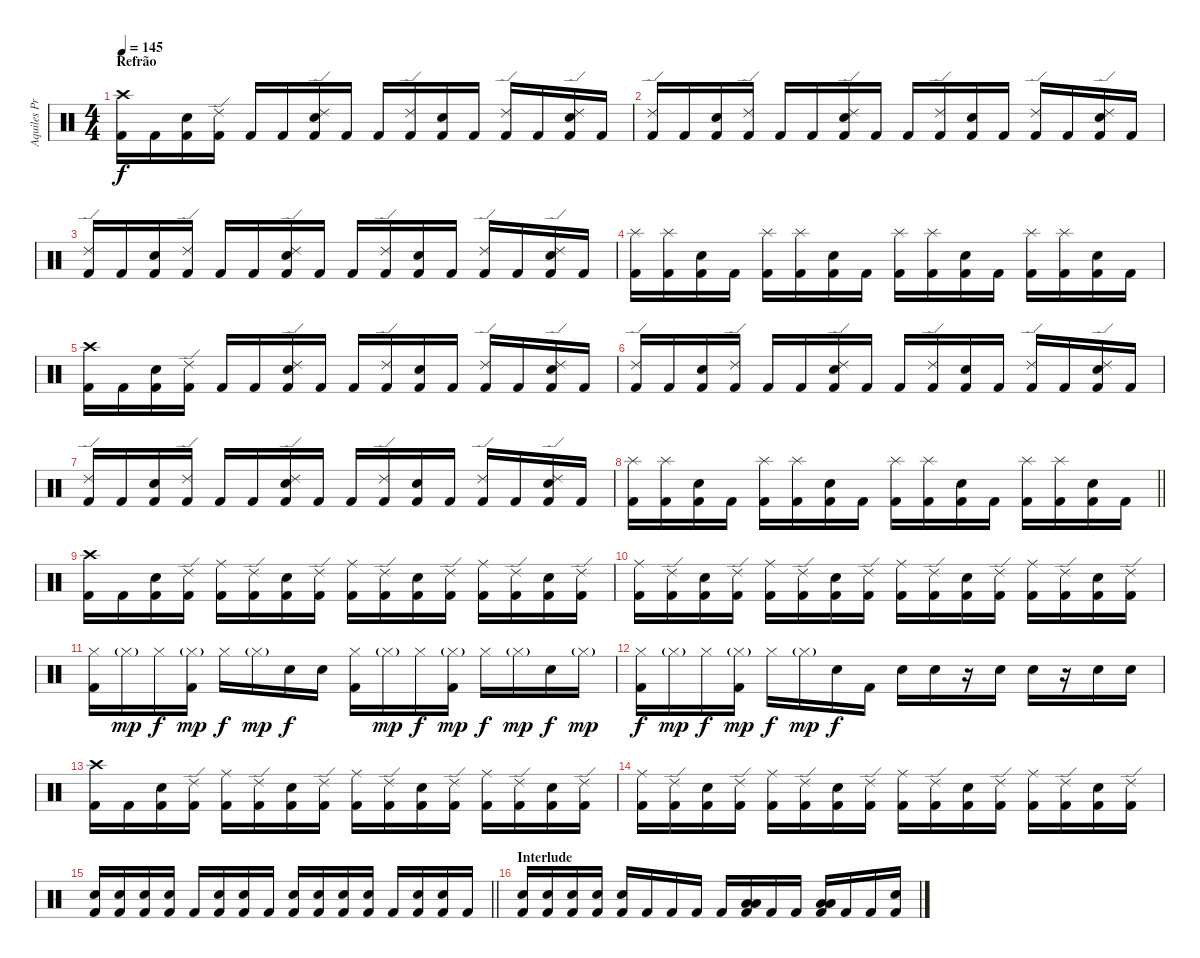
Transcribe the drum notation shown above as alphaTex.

\track ("Aquiles Priester" "Aquiles Pr") {instrument percussion}
\staff {score}
\articulation defaults
\ts (4 4)
\section ("" "Refrão")
\tempo 145
\clef neutral
\ks c
("Crash high (hit)" "Kick (hit) 2").16{dy f} "Kick (hit) 2".16 ("Electric Snare (hit)" "Kick (hit) 2").16 ("Ride (edge) 2" "Kick (hit) 2").16 "Kick (hit) 2".16 "Kick (hit) 2".16 ("Ride (edge) 2" "Electric Snare (hit)" "Kick (hit) 2").16 "Kick (hit) 2".16 "Kick (hit) 2".16 ("Ride (edge) 2" "Kick (hit) 2").16 ("Electric Snare (hit)" "Kick (hit) 2").16 "Kick (hit) 2".16 ("Ride (edge) 2" "Kick (hit) 2").16 "Kick (hit) 2".16 ("Ride (edge) 2" "Electric Snare (hit)" "Kick (hit) 2").16 "Kick (hit) 2".16 |
("Ride (edge) 2" "Kick (hit) 2").16 "Kick (hit) 2".16 ("Electric Snare (hit)" "Kick (hit) 2").16 ("Ride (edge) 2" "Kick (hit) 2").16 "Kick (hit) 2".16 "Kick (hit) 2".16 ("Ride (edge) 2" "Electric Snare (hit)" "Kick (hit) 2").16 "Kick (hit) 2".16 "Kick (hit) 2".16 ("Ride (edge) 2" "Kick (hit) 2").16 ("Electric Snare (hit)" "Kick (hit) 2").16 "Kick (hit) 2".16 ("Ride (edge) 2" "Kick (hit) 2").16 "Kick (hit) 2".16 ("Ride (edge) 2" "Electric Snare (hit)" "Kick (hit) 2").16 "Kick (hit) 2".16 |
("Ride (edge) 2" "Kick (hit) 2").16 "Kick (hit) 2".16 ("Electric Snare (hit)" "Kick (hit) 2").16 ("Ride (edge) 2" "Kick (hit) 2").16 "Kick (hit) 2".16 "Kick (hit) 2".16 ("Ride (edge) 2" "Electric Snare (hit)" "Kick (hit) 2").16 "Kick (hit) 2".16 "Kick (hit) 2".16 ("Ride (edge) 2" "Kick (hit) 2").16 ("Electric Snare (hit)" "Kick (hit) 2").16 "Kick (hit) 2".16 ("Ride (edge) 2" "Kick (hit) 2").16 "Kick (hit) 2".16 ("Ride (edge) 2" "Electric Snare (hit)" "Kick (hit) 2").16 "Kick (hit) 2".16 |
("Splash (hit)" "Kick (hit) 2").16 ("Splash (hit)" "Kick (hit) 2").16 ("Electric Snare (hit)" "Kick (hit) 2").16 "Kick (hit) 2".16 ("Splash (hit)" "Kick (hit) 2").16 ("Splash (hit)" "Kick (hit) 2").16 ("Electric Snare (hit)" "Kick (hit) 2").16 "Kick (hit) 2".16 ("Splash (hit)" "Kick (hit) 2").16 ("Splash (hit)" "Kick (hit) 2").16 ("Electric Snare (hit)" "Kick (hit) 2").16 "Kick (hit) 2".16 ("Splash (hit)" "Kick (hit) 2").16 ("Splash (hit)" "Kick (hit) 2").16 ("Electric Snare (hit)" "Kick (hit) 2").16 "Kick (hit) 2".16 |
("Crash high (hit)" "Kick (hit) 2").16 "Kick (hit) 2".16 ("Electric Snare (hit)" "Kick (hit) 2").16 ("Ride (edge) 2" "Kick (hit) 2").16 "Kick (hit) 2".16 "Kick (hit) 2".16 ("Ride (edge) 2" "Electric Snare (hit)" "Kick (hit) 2").16 "Kick (hit) 2".16 "Kick (hit) 2".16 ("Ride (edge) 2" "Kick (hit) 2").16 ("Electric Snare (hit)" "Kick (hit) 2").16 "Kick (hit) 2".16 ("Ride (edge) 2" "Kick (hit) 2").16 "Kick (hit) 2".16 ("Ride (edge) 2" "Electric Snare (hit)" "Kick (hit) 2").16 "Kick (hit) 2".16 |
("Ride (edge) 2" "Kick (hit) 2").16 "Kick (hit) 2".16 ("Electric Snare (hit)" "Kick (hit) 2").16 ("Ride (edge) 2" "Kick (hit) 2").16 "Kick (hit) 2".16 "Kick (hit) 2".16 ("Ride (edge) 2" "Electric Snare (hit)" "Kick (hit) 2").16 "Kick (hit) 2".16 "Kick (hit) 2".16 ("Ride (edge) 2" "Kick (hit) 2").16 ("Electric Snare (hit)" "Kick (hit) 2").16 "Kick (hit) 2".16 ("Ride (edge) 2" "Kick (hit) 2").16 "Kick (hit) 2".16 ("Ride (edge) 2" "Electric Snare (hit)" "Kick (hit) 2").16 "Kick (hit) 2".16 |
("Ride (edge) 2" "Kick (hit) 2").16 "Kick (hit) 2".16 ("Electric Snare (hit)" "Kick (hit) 2").16 ("Ride (edge) 2" "Kick (hit) 2").16 "Kick (hit) 2".16 "Kick (hit) 2".16 ("Ride (edge) 2" "Electric Snare (hit)" "Kick (hit) 2").16 "Kick (hit) 2".16 "Kick (hit) 2".16 ("Ride (edge) 2" "Kick (hit) 2").16 ("Electric Snare (hit)" "Kick (hit) 2").16 "Kick (hit) 2".16 ("Ride (edge) 2" "Kick (hit) 2").16 "Kick (hit) 2".16 ("Ride (edge) 2" "Electric Snare (hit)" "Kick (hit) 2").16 "Kick (hit) 2".16 |
\barLineRight lightlight
("Splash (hit)" "Kick (hit) 2").16 ("Splash (hit)" "Kick (hit) 2").16 ("Electric Snare (hit)" "Kick (hit) 2").16 "Kick (hit) 2".16 ("Splash (hit)" "Kick (hit) 2").16 ("Splash (hit)" "Kick (hit) 2").16 ("Electric Snare (hit)" "Kick (hit) 2").16 "Kick (hit) 2".16 ("Splash (hit)" "Kick (hit) 2").16 ("Splash (hit)" "Kick (hit) 2").16 ("Electric Snare (hit)" "Kick (hit) 2").16 "Kick (hit) 2".16 ("Splash (hit)" "Kick (hit) 2").16 ("Splash (hit)" "Kick (hit) 2").16 ("Electric Snare (hit)" "Kick (hit) 2").16 "Kick (hit) 2".16 |
("Crash high (hit)" "Kick (hit) 2").16 "Kick (hit) 2".16 ("Electric Snare (hit)" "Kick (hit) 2").16 ("Ride (edge) 2" "Kick (hit) 2").16 ("Ride (middle)" "Kick (hit) 2").16 ("Ride (edge) 2" "Kick (hit) 2").16 ("Electric Snare (hit)" "Kick (hit) 2").16 ("Ride (edge) 2" "Kick (hit) 2").16 ("Ride (middle)" "Kick (hit) 2").16 ("Ride (edge) 2" "Kick (hit) 2").16 ("Electric Snare (hit)" "Kick (hit) 2").16 ("Ride (edge) 2" "Kick (hit) 2").16 ("Ride (middle)" "Kick (hit) 2").16 ("Ride (edge) 2" "Kick (hit) 2").16 ("Electric Snare (hit)" "Kick (hit) 2").16 ("Ride (edge) 2" "Kick (hit) 2").16 |
("Ride (middle)" "Kick (hit) 2").16 ("Ride (edge) 2" "Kick (hit) 2").16 ("Electric Snare (hit)" "Kick (hit) 2").16 ("Ride (edge) 2" "Kick (hit) 2").16 ("Ride (middle)" "Kick (hit) 2").16 ("Ride (edge) 2" "Kick (hit) 2").16 ("Electric Snare (hit)" "Kick (hit) 2").16 ("Ride (edge) 2" "Kick (hit) 2").16 ("Ride (middle)" "Kick (hit) 2").16 ("Ride (edge) 2" "Kick (hit) 2").16 ("Electric Snare (hit)" "Kick (hit) 2").16 ("Ride (edge) 2" "Kick (hit) 2").16 ("Ride (middle)" "Kick (hit) 2").16 ("Ride (edge) 2" "Kick (hit) 2").16 ("Electric Snare (hit)" "Kick (hit) 2").16 ("Ride (edge) 2" "Kick (hit) 2").16 |
("Hi-Hat (closed)" "Kick (hit) 2").16 "Hi-Hat (closed)"{g}.16{dy mp} "Hi-Hat (closed)".16{dy f} ("Hi-Hat (closed)"{g} "Kick (hit) 2").16{dy mp} "Hi-Hat (closed)".16{dy f} "Hi-Hat (closed)"{g}.16{dy mp} "Electric Snare (hit)".16{dy f} "Electric Snare (hit)".16 ("Hi-Hat (closed)" "Kick (hit) 2").16 "Hi-Hat (closed)"{g}.16{dy mp} "Hi-Hat (closed)".16{dy f} ("Hi-Hat (closed)"{g} "Kick (hit) 2").16{dy mp} "Hi-Hat (closed)".16{dy f} "Hi-Hat (closed)"{g}.16{dy mp} "Electric Snare (hit)".16{dy f} "Hi-Hat (closed)"{g}.16{dy mp} |
("Hi-Hat (closed)" "Kick (hit) 2").16{dy f} "Hi-Hat (closed)"{g}.16{dy mp} "Hi-Hat (closed)".16{dy f} ("Hi-Hat (closed)"{g} "Kick (hit) 2").16{dy mp} "Hi-Hat (closed)".16{dy f} "Hi-Hat (closed)"{g}.16{dy mp} "Electric Snare (hit)".16{dy f} "Kick (hit) 2".16 "Electric Snare (hit)".16 "Electric Snare (hit)".16 r.16 "Electric Snare (hit)".16 "Electric Snare (hit)".16 r.16 "Electric Snare (hit)".16 "Electric Snare (hit)".16 |
("Crash high (hit)" "Kick (hit) 2").16 "Kick (hit) 2".16 ("Electric Snare (hit)" "Kick (hit) 2").16 ("Ride (edge) 2" "Kick (hit) 2").16 ("Ride (middle)" "Kick (hit) 2").16 ("Ride (edge) 2" "Kick (hit) 2").16 ("Electric Snare (hit)" "Kick (hit) 2").16 ("Ride (edge) 2" "Kick (hit) 2").16 ("Ride (middle)" "Kick (hit) 2").16 ("Ride (edge) 2" "Kick (hit) 2").16 ("Electric Snare (hit)" "Kick (hit) 2").16 ("Ride (edge) 2" "Kick (hit) 2").16 ("Ride (middle)" "Kick (hit) 2").16 ("Ride (edge) 2" "Kick (hit) 2").16 ("Electric Snare (hit)" "Kick (hit) 2").16 ("Ride (edge) 2" "Kick (hit) 2").16 |
("Ride (middle)" "Kick (hit) 2").16 ("Ride (edge) 2" "Kick (hit) 2").16 ("Electric Snare (hit)" "Kick (hit) 2").16 ("Ride (edge) 2" "Kick (hit) 2").16 ("Ride (middle)" "Kick (hit) 2").16 ("Ride (edge) 2" "Kick (hit) 2").16 ("Electric Snare (hit)" "Kick (hit) 2").16 ("Ride (edge) 2" "Kick (hit) 2").16 ("Ride (middle)" "Kick (hit) 2").16 ("Ride (edge) 2" "Kick (hit) 2").16 ("Electric Snare (hit)" "Kick (hit) 2").16 ("Ride (edge) 2" "Kick (hit) 2").16 ("Ride (middle)" "Kick (hit) 2").16 ("Ride (edge) 2" "Kick (hit) 2").16 ("Electric Snare (hit)" "Kick (hit) 2").16 ("Ride (edge) 2" "Kick (hit) 2").16 |
\barLineRight lightlight
("Electric Snare (hit)" "Kick (hit) 2").16 ("Electric Snare (hit)" "Kick (hit) 2").16 ("Electric Snare (hit)" "Kick (hit) 2").16 ("Electric Snare (hit)" "Kick (hit) 2").16 "Kick (hit) 2".16 ("Electric Snare (hit)" "Kick (hit) 2").16 ("Electric Snare (hit)" "Kick (hit) 2").16 "Kick (hit) 2".16 ("Electric Snare (hit)" "Kick (hit) 2").16 ("Electric Snare (hit)" "Kick (hit) 2").16 ("Electric Snare (hit)" "Kick (hit) 2").16 ("Electric Snare (hit)" "Kick (hit) 2").16 "Kick (hit) 2".16 ("Electric Snare (hit)" "Kick (hit) 2").16 ("Electric Snare (hit)" "Kick (hit) 2").16 "Kick (hit) 2".16 |
\section ("" "Interlude")
("Electric Snare (hit)" "Kick (hit) 2").16 ("Electric Snare (hit)" "Kick (hit) 2").16 ("Electric Snare (hit)" "Kick (hit) 2").16 ("Electric Snare (hit)" "Kick (hit) 2").16 ("Electric Snare (hit)" "Kick (hit) 2").16 "Kick (hit) 2".16 "Kick (hit) 2".16 "Kick (hit) 2".16 "Kick (hit) 2".16 ("Low Tom (hit)" "Low Floor Tom (hit)" "Kick (hit) 2").16 "Kick (hit) 2".16 "Kick (hit) 2".16 ("Low Tom (hit)" "Low Floor Tom (hit)" "Kick (hit) 2").16 "Kick (hit) 2".16 "Kick (hit) 2".16 ("Electric Snare (hit)" "Kick (hit) 2").16
